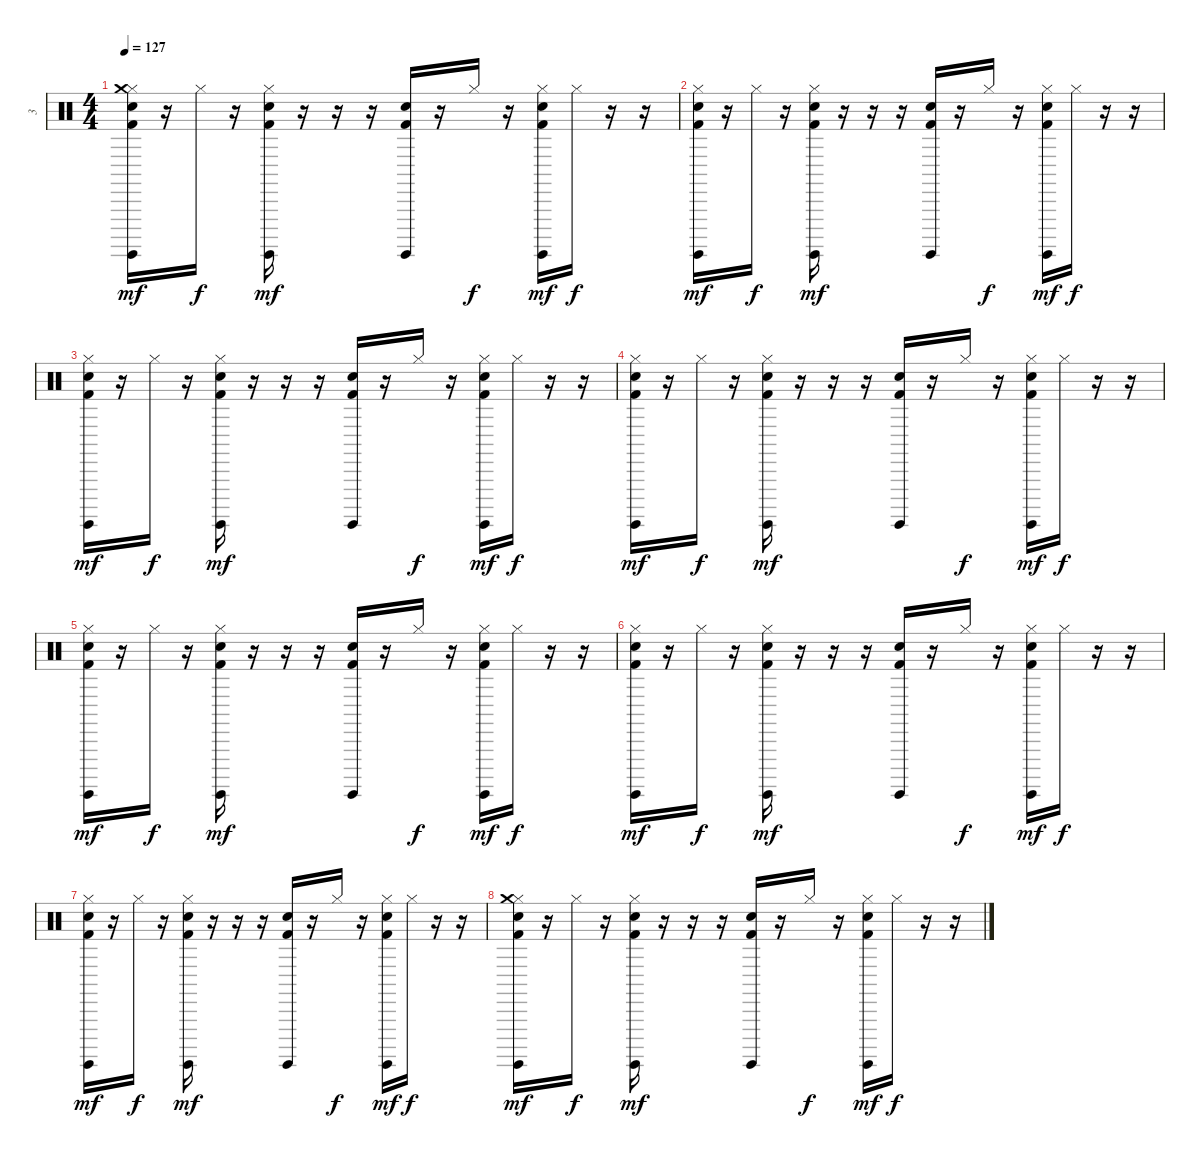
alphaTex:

\track ("3" "3") {instrument percussion}
\staff {score}
\articulation defaults
\ts (4 4)
\tempo 127
\clef neutral
\ks c
("Hi-Hat (closed)" "Crash medium (hit)" "Surdo (hit)" "Kick (hit) 2" "Hand Clap (hit)").16{dy mf} r.16 "Hi-Hat (closed)".16{dy f} r.16 ("Hi-Hat (closed)" "Surdo (hit)" "Kick (hit) 2" "Hand Clap (hit)").16{dy mf} r.16 r.16 r.16 ("Surdo (hit)" "Kick (hit) 2" "Hand Clap (hit)").16 r.16 "Hi-Hat (closed)".16{dy f} r.16 ("Hi-Hat (closed)" "Surdo (hit)" "Kick (hit) 2" "Hand Clap (hit)").16{dy mf} "Hi-Hat (closed)".16{dy f} r.16 r.16 |
("Hi-Hat (closed)" "Surdo (hit)" "Kick (hit) 2" "Hand Clap (hit)").16{dy mf} r.16 "Hi-Hat (closed)".16{dy f} r.16 ("Hi-Hat (closed)" "Surdo (hit)" "Kick (hit) 2" "Hand Clap (hit)").16{dy mf} r.16 r.16 r.16 ("Surdo (hit)" "Kick (hit) 2" "Hand Clap (hit)").16 r.16 "Hi-Hat (closed)".16{dy f} r.16 ("Hi-Hat (closed)" "Surdo (hit)" "Kick (hit) 2" "Hand Clap (hit)").16{dy mf} "Hi-Hat (closed)".16{dy f} r.16 r.16 |
("Hi-Hat (closed)" "Surdo (hit)" "Kick (hit) 2" "Hand Clap (hit)").16{dy mf} r.16 "Hi-Hat (closed)".16{dy f} r.16 ("Hi-Hat (closed)" "Surdo (hit)" "Kick (hit) 2" "Hand Clap (hit)").16{dy mf} r.16 r.16 r.16 ("Surdo (hit)" "Kick (hit) 2" "Hand Clap (hit)").16 r.16 "Hi-Hat (closed)".16{dy f} r.16 ("Hi-Hat (closed)" "Surdo (hit)" "Kick (hit) 2" "Hand Clap (hit)").16{dy mf} "Hi-Hat (closed)".16{dy f} r.16 r.16 |
("Hi-Hat (closed)" "Surdo (hit)" "Kick (hit) 2" "Hand Clap (hit)").16{dy mf} r.16 "Hi-Hat (closed)".16{dy f} r.16 ("Hi-Hat (closed)" "Surdo (hit)" "Kick (hit) 2" "Hand Clap (hit)").16{dy mf} r.16 r.16 r.16 ("Surdo (hit)" "Kick (hit) 2" "Hand Clap (hit)").16 r.16 "Hi-Hat (closed)".16{dy f} r.16 ("Hi-Hat (closed)" "Surdo (hit)" "Kick (hit) 2" "Hand Clap (hit)").16{dy mf} "Hi-Hat (closed)".16{dy f} r.16 r.16 |
("Hi-Hat (closed)" "Surdo (hit)" "Kick (hit) 2" "Hand Clap (hit)").16{dy mf} r.16 "Hi-Hat (closed)".16{dy f} r.16 ("Hi-Hat (closed)" "Surdo (hit)" "Kick (hit) 2" "Hand Clap (hit)").16{dy mf} r.16 r.16 r.16 ("Surdo (hit)" "Kick (hit) 2" "Hand Clap (hit)").16 r.16 "Hi-Hat (closed)".16{dy f} r.16 ("Hi-Hat (closed)" "Surdo (hit)" "Kick (hit) 2" "Hand Clap (hit)").16{dy mf} "Hi-Hat (closed)".16{dy f} r.16 r.16 |
("Hi-Hat (closed)" "Surdo (hit)" "Kick (hit) 2" "Hand Clap (hit)").16{dy mf} r.16 "Hi-Hat (closed)".16{dy f} r.16 ("Hi-Hat (closed)" "Surdo (hit)" "Kick (hit) 2" "Hand Clap (hit)").16{dy mf} r.16 r.16 r.16 ("Surdo (hit)" "Kick (hit) 2" "Hand Clap (hit)").16 r.16 "Hi-Hat (closed)".16{dy f} r.16 ("Hi-Hat (closed)" "Surdo (hit)" "Kick (hit) 2" "Hand Clap (hit)").16{dy mf} "Hi-Hat (closed)".16{dy f} r.16 r.16 |
("Hi-Hat (closed)" "Surdo (hit)" "Kick (hit) 2" "Hand Clap (hit)").16{dy mf} r.16 "Hi-Hat (closed)".16{dy f} r.16 ("Hi-Hat (closed)" "Surdo (hit)" "Kick (hit) 2" "Hand Clap (hit)").16{dy mf} r.16 r.16 r.16 ("Surdo (hit)" "Kick (hit) 2" "Hand Clap (hit)").16 r.16 "Hi-Hat (closed)".16{dy f} r.16 ("Hi-Hat (closed)" "Surdo (hit)" "Kick (hit) 2" "Hand Clap (hit)").16{dy mf} "Hi-Hat (closed)".16{dy f} r.16 r.16 |
("Hi-Hat (closed)" "Crash medium (hit)" "Surdo (hit)" "Kick (hit) 2" "Hand Clap (hit)").16{dy mf} r.16 "Hi-Hat (closed)".16{dy f} r.16 ("Hi-Hat (closed)" "Surdo (hit)" "Kick (hit) 2" "Hand Clap (hit)").16{dy mf} r.16 r.16 r.16 ("Surdo (hit)" "Kick (hit) 2" "Hand Clap (hit)").16 r.16 "Hi-Hat (closed)".16{dy f} r.16 ("Hi-Hat (closed)" "Surdo (hit)" "Kick (hit) 2" "Hand Clap (hit)").16{dy mf} "Hi-Hat (closed)".16{dy f} r.16 r.16
